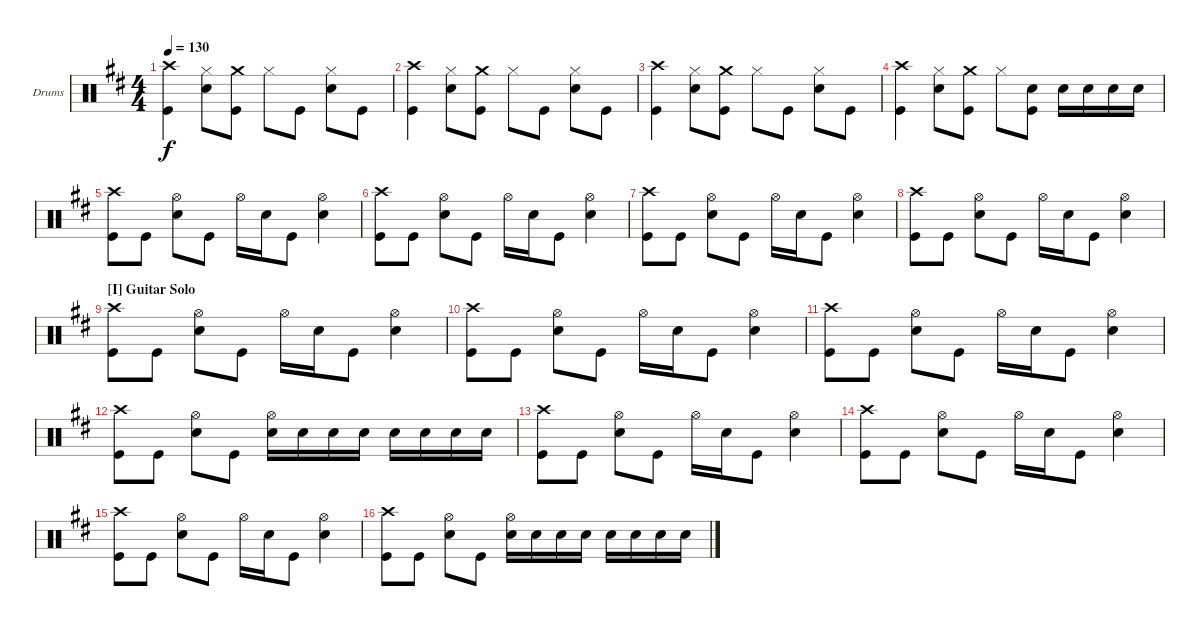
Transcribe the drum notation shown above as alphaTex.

\defaultSystemsLayout 4
\bracketExtendMode groupsimilarinstruments
\firstSystemTrackNameOrientation horizontal
\otherSystemsTrackNameOrientation horizontal
\track ("Drums" "Drums") {instrument percussion}
\staff {score}
\articulation defaults
\ts (4 4)
\tempo 130
\clef neutral
\scale
1.05044
\ks d
("Crash high (hit)" "Kick (hit)").4{dy f} ("Hi-Hat (closed)" "Snare (hit) 2").8 ("Crash medium (hit)" "Kick (hit)").8 "Hi-Hat (closed)".8 "Kick (hit)".8 ("Hi-Hat (closed)" "Snare (hit) 2").8 "Kick (hit)".8 |
\scale
0.949559 ("Crash high (hit)" "Kick (hit)").4 ("Hi-Hat (closed)" "Snare (hit) 2").8 ("Crash medium (hit)" "Kick (hit)").8 "Hi-Hat (closed)".8 "Kick (hit)".8 ("Hi-Hat (closed)" "Snare (hit) 2").8 "Kick (hit)".8 |
\scale
1.05044 ("Crash high (hit)" "Kick (hit)").4 ("Hi-Hat (closed)" "Snare (hit) 2").8 ("Crash medium (hit)" "Kick (hit)").8 "Hi-Hat (closed)".8 "Kick (hit)".8 ("Hi-Hat (closed)" "Snare (hit) 2").8 "Kick (hit)".8 |
\scale
0.949559 ("Crash high (hit)" "Kick (hit)").4 ("Hi-Hat (closed)" "Snare (hit) 2").8 ("Crash medium (hit)" "Kick (hit)").8 "Hi-Hat (closed)".8 ("Snare (hit) 2" "Kick (hit)").8 "Snare (hit) 2".16 "Snare (hit) 2".16 "Snare (hit) 2".16 "Snare (hit) 2".16 |
\scale
1.05044 ("Crash high (hit)" "Kick (hit)").8 "Kick (hit)".8 ("Hi-Hat (open)" "Snare (hit) 2").8 "Kick (hit)".8 "Hi-Hat (open)".16 "Snare (hit) 2".16 "Kick (hit)".8 ("Hi-Hat (open)" "Snare (hit) 2").4 |
\scale
0.949559 ("Crash high (hit)" "Kick (hit)").8 "Kick (hit)".8 ("Hi-Hat (open)" "Snare (hit) 2").8 "Kick (hit)".8 "Hi-Hat (open)".16 "Snare (hit) 2".16 "Kick (hit)".8 ("Hi-Hat (open)" "Snare (hit) 2").4 |
\scale
1.05044 ("Crash high (hit)" "Kick (hit)").8 "Kick (hit)".8 ("Hi-Hat (open)" "Snare (hit) 2").8 "Kick (hit)".8 "Hi-Hat (open)".16 "Snare (hit) 2".16 "Kick (hit)".8 ("Hi-Hat (open)" "Snare (hit) 2").4 |
\scale
0.949559 ("Crash high (hit)" "Kick (hit)").8 "Kick (hit)".8 ("Hi-Hat (open)" "Snare (hit) 2").8 "Kick (hit)".8 "Hi-Hat (open)".16 "Snare (hit) 2".16 "Kick (hit)".8 ("Hi-Hat (open)" "Snare (hit) 2").4 |
\section ("I" "Guitar Solo")
\scale
1.05044 ("Crash high (hit)" "Kick (hit)").8 "Kick (hit)".8 ("Hi-Hat (open)" "Snare (hit) 2").8 "Kick (hit)".8 "Hi-Hat (open)".16 "Snare (hit) 2".16 "Kick (hit)".8 ("Hi-Hat (open)" "Snare (hit) 2").4 |
\scale
0.949559 ("Crash high (hit)" "Kick (hit)").8 "Kick (hit)".8 ("Hi-Hat (open)" "Snare (hit) 2").8 "Kick (hit)".8 "Hi-Hat (open)".16 "Snare (hit) 2".16 "Kick (hit)".8 ("Hi-Hat (open)" "Snare (hit) 2").4 |
\scale
1.05044 ("Crash high (hit)" "Kick (hit)").8 "Kick (hit)".8 ("Hi-Hat (open)" "Snare (hit) 2").8 "Kick (hit)".8 "Hi-Hat (open)".16 "Snare (hit) 2".16 "Kick (hit)".8 ("Hi-Hat (open)" "Snare (hit) 2").4 |
\scale
0.949559 ("Crash high (hit)" "Kick (hit)").8 "Kick (hit)".8 ("Hi-Hat (open)" "Snare (hit) 2").8 "Kick (hit)".8 ("Hi-Hat (open)" "Snare (hit) 2").16 "Snare (hit) 2".16 "Snare (hit) 2".16 "Snare (hit) 2".16 "Snare (hit) 2".16 "Snare (hit) 2".16 "Snare (hit) 2".16 "Snare (hit) 2".16 |
\scale
1.05044 ("Crash high (hit)" "Kick (hit)").8 "Kick (hit)".8 ("Hi-Hat (open)" "Snare (hit) 2").8 "Kick (hit)".8 "Hi-Hat (open)".16 "Snare (hit) 2".16 "Kick (hit)".8 ("Hi-Hat (open)" "Snare (hit) 2").4 |
\scale
0.949559 ("Crash high (hit)" "Kick (hit)").8 "Kick (hit)".8 ("Hi-Hat (open)" "Snare (hit) 2").8 "Kick (hit)".8 "Hi-Hat (open)".16 "Snare (hit) 2".16 "Kick (hit)".8 ("Hi-Hat (open)" "Snare (hit) 2").4 |
\scale
1.05044 ("Crash high (hit)" "Kick (hit)").8 "Kick (hit)".8 ("Hi-Hat (open)" "Snare (hit) 2").8 "Kick (hit)".8 "Hi-Hat (open)".16 "Snare (hit) 2".16 "Kick (hit)".8 ("Hi-Hat (open)" "Snare (hit) 2").4 |
\scale
0.949559 ("Crash high (hit)" "Kick (hit)").8 "Kick (hit)".8 ("Hi-Hat (open)" "Snare (hit) 2").8 "Kick (hit)".8 ("Hi-Hat (open)" "Snare (hit) 2").16 "Snare (hit) 2".16 "Snare (hit) 2".16 "Snare (hit) 2".16 "Snare (hit) 2".16 "Snare (hit) 2".16 "Snare (hit) 2".16 "Snare (hit) 2".16
